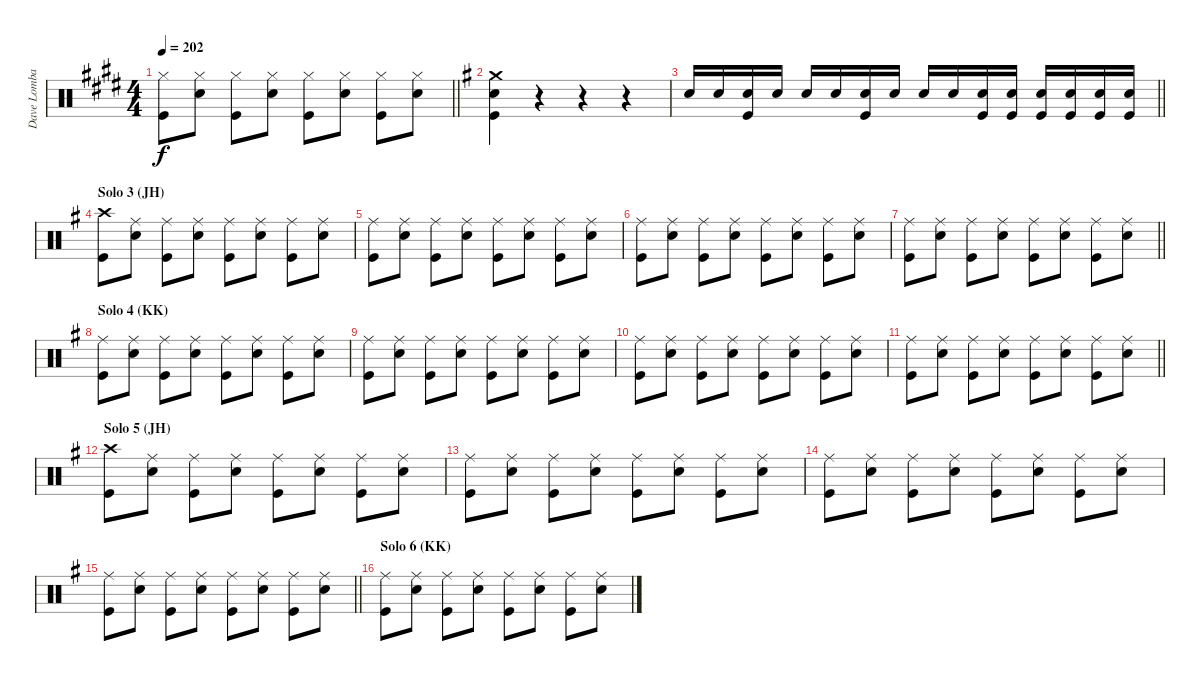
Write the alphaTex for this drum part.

\track ("Dave Lombardo" "Dave Lomba") {instrument percussion}
\staff {score}
\articulation defaults
\ts (4 4)
\tempo 202
\clef neutral
\barLineRight lightlight
\ks e
("Hi-Hat (closed)" "Kick (hit)").8{dy f} ("Hi-Hat (closed)" "Snare (hit) 2").8 ("Hi-Hat (closed)" "Kick (hit)").8 ("Hi-Hat (closed)" "Snare (hit) 2").8 ("Hi-Hat (closed)" "Kick (hit)").8 ("Hi-Hat (closed)" "Snare (hit) 2").8 ("Hi-Hat (closed)" "Kick (hit)").8 ("Hi-Hat (closed)" "Snare (hit) 2").8 |
\ks g
("Crash medium (hit)" "Snare (hit) 2" "Kick (hit)").4 r.4 r.4 r.4 |
\barLineRight lightlight "Snare (hit) 2".16 "Snare (hit) 2".16
("Snare (hit) 2" "Kick (hit)").16 "Snare (hit) 2".16 "Snare (hit) 2".16 "Snare (hit) 2".16 ("Snare (hit) 2" "Kick (hit)").16 "Snare (hit) 2".16 "Snare (hit) 2".16 "Snare (hit) 2".16 ("Snare (hit) 2" "Kick (hit)").16 ("Snare (hit) 2" "Kick (hit)").16 ("Snare (hit) 2" "Kick (hit)").16 ("Snare (hit) 2" "Kick (hit)").16 ("Snare (hit) 2" "Kick (hit)").16 ("Snare (hit) 2" "Kick (hit)").16 |
\section ("" "Solo 3 (JH)")
("Crash high (hit)" "Kick (hit)").8 ("Ride (middle)" "Snare (hit) 2").8 ("Ride (middle)" "Kick (hit)").8 ("Ride (middle)" "Snare (hit) 2").8 ("Ride (middle)" "Kick (hit)").8 ("Ride (middle)" "Snare (hit) 2").8 ("Ride (middle)" "Kick (hit)").8 ("Ride (middle)" "Snare (hit) 2").8 |
("Ride (middle)" "Kick (hit)").8 ("Ride (middle)" "Snare (hit) 2").8 ("Ride (middle)" "Kick (hit)").8 ("Ride (middle)" "Snare (hit) 2").8 ("Ride (middle)" "Kick (hit)").8 ("Ride (middle)" "Snare (hit) 2").8 ("Ride (middle)" "Kick (hit)").8 ("Ride (middle)" "Snare (hit) 2").8 |
("Ride (middle)" "Kick (hit)").8 ("Ride (middle)" "Snare (hit) 2").8 ("Ride (middle)" "Kick (hit)").8 ("Ride (middle)" "Snare (hit) 2").8 ("Ride (middle)" "Kick (hit)").8 ("Ride (middle)" "Snare (hit) 2").8 ("Ride (middle)" "Kick (hit)").8 ("Ride (middle)" "Snare (hit) 2").8 |
\barLineRight lightlight
("Ride (middle)" "Kick (hit)").8 ("Ride (middle)" "Snare (hit) 2").8 ("Ride (middle)" "Kick (hit)").8 ("Ride (middle)" "Snare (hit) 2").8 ("Ride (middle)" "Kick (hit)").8 ("Ride (middle)" "Snare (hit) 2").8 ("Ride (middle)" "Kick (hit)").8 ("Ride (middle)" "Snare (hit) 2").8 |
\section ("" "Solo 4 (KK)")
("Ride (middle)" "Kick (hit)").8 ("Ride (middle)" "Snare (hit) 2").8 ("Ride (middle)" "Kick (hit)").8 ("Ride (middle)" "Snare (hit) 2").8 ("Ride (middle)" "Kick (hit)").8 ("Ride (middle)" "Snare (hit) 2").8 ("Ride (middle)" "Kick (hit)").8 ("Ride (middle)" "Snare (hit) 2").8 |
("Ride (middle)" "Kick (hit)").8 ("Ride (middle)" "Snare (hit) 2").8 ("Ride (middle)" "Kick (hit)").8 ("Ride (middle)" "Snare (hit) 2").8 ("Ride (middle)" "Kick (hit)").8 ("Ride (middle)" "Snare (hit) 2").8 ("Ride (middle)" "Kick (hit)").8 ("Ride (middle)" "Snare (hit) 2").8 |
("Ride (middle)" "Kick (hit)").8 ("Ride (middle)" "Snare (hit) 2").8 ("Ride (middle)" "Kick (hit)").8 ("Ride (middle)" "Snare (hit) 2").8 ("Ride (middle)" "Kick (hit)").8 ("Ride (middle)" "Snare (hit) 2").8 ("Ride (middle)" "Kick (hit)").8 ("Ride (middle)" "Snare (hit) 2").8 |
\barLineRight lightlight
("Ride (middle)" "Kick (hit)").8 ("Ride (middle)" "Snare (hit) 2").8 ("Ride (middle)" "Kick (hit)").8 ("Ride (middle)" "Snare (hit) 2").8 ("Ride (middle)" "Kick (hit)").8 ("Ride (middle)" "Snare (hit) 2").8 ("Ride (middle)" "Kick (hit)").8 ("Ride (middle)" "Snare (hit) 2").8 |
\section ("" "Solo 5 (JH)")
("Crash high (hit)" "Kick (hit)").8 ("Ride (middle)" "Snare (hit) 2").8 ("Ride (middle)" "Kick (hit)").8 ("Ride (middle)" "Snare (hit) 2").8 ("Ride (middle)" "Kick (hit)").8 ("Ride (middle)" "Snare (hit) 2").8 ("Ride (middle)" "Kick (hit)").8 ("Ride (middle)" "Snare (hit) 2").8 |
("Ride (middle)" "Kick (hit)").8 ("Ride (middle)" "Snare (hit) 2").8 ("Ride (middle)" "Kick (hit)").8 ("Ride (middle)" "Snare (hit) 2").8 ("Ride (middle)" "Kick (hit)").8 ("Ride (middle)" "Snare (hit) 2").8 ("Ride (middle)" "Kick (hit)").8 ("Ride (middle)" "Snare (hit) 2").8 |
("Ride (middle)" "Kick (hit)").8 ("Ride (middle)" "Snare (hit) 2").8 ("Ride (middle)" "Kick (hit)").8 ("Ride (middle)" "Snare (hit) 2").8 ("Ride (middle)" "Kick (hit)").8 ("Ride (middle)" "Snare (hit) 2").8 ("Ride (middle)" "Kick (hit)").8 ("Ride (middle)" "Snare (hit) 2").8 |
\barLineRight lightlight
("Ride (middle)" "Kick (hit)").8 ("Ride (middle)" "Snare (hit) 2").8 ("Ride (middle)" "Kick (hit)").8 ("Ride (middle)" "Snare (hit) 2").8 ("Ride (middle)" "Kick (hit)").8 ("Ride (middle)" "Snare (hit) 2").8 ("Ride (middle)" "Kick (hit)").8 ("Ride (middle)" "Snare (hit) 2").8 |
\section ("" "Solo 6 (KK)")
("Ride (middle)" "Kick (hit)").8 ("Ride (middle)" "Snare (hit) 2").8 ("Ride (middle)" "Kick (hit)").8 ("Ride (middle)" "Snare (hit) 2").8 ("Ride (middle)" "Kick (hit)").8 ("Ride (middle)" "Snare (hit) 2").8 ("Ride (middle)" "Kick (hit)").8 ("Ride (middle)" "Snare (hit) 2").8
